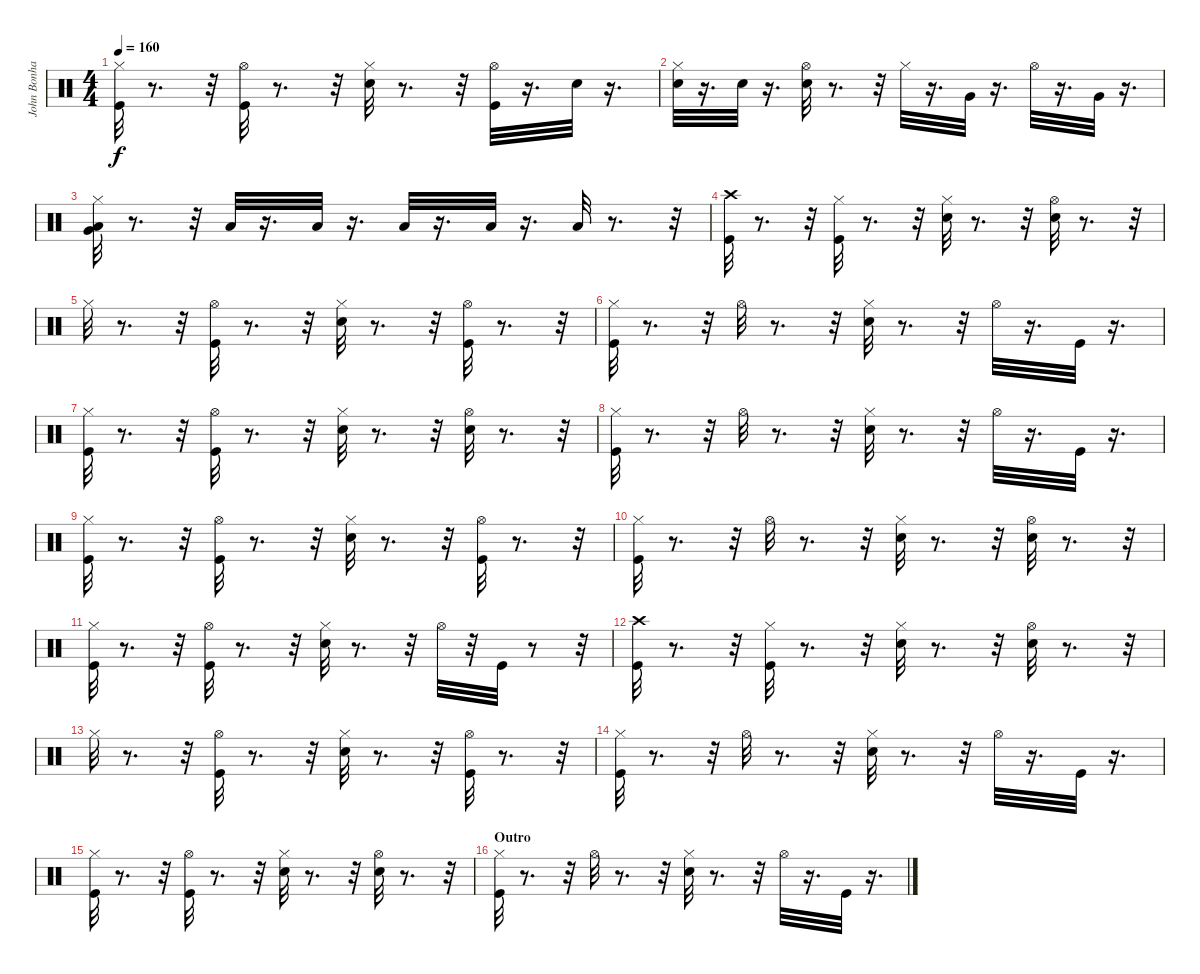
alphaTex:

\track ("John Bonham" "John Bonha") {instrument percussion}
\staff {score}
\articulation defaults
\ts (4 4)
\tempo 160
\clef neutral
\ks c
("Hi-Hat (closed)" "Kick (hit)").32{dy f} r.8{d} r.32 ("Hi-Hat (open)" "Kick (hit)").32 r.8{d} r.32 ("Hi-Hat (closed)" "Snare (hit) 2").32 r.8{d} r.32 ("Hi-Hat (open)" "Kick (hit)").32 r.16{d} "Snare (hit) 2".32 r.16{d} |
("Hi-Hat (closed)" "Snare (hit) 2").32 r.16{d} "Snare (hit) 2".32 r.16{d} ("Snare (hit) 2" "Hi-Hat (open)").32 r.8{d} r.32 "Hi-Hat (closed)".32 r.16{d} "Very Low Tom (hit)".32 r.16{d} "Hi-Hat (open)".32 r.16{d} "Very Low Tom (hit)".32 r.16{d} |
("Very Low Tom (hit)" "Hi-Hat (closed)" "Low Floor Tom (hit)").32 r.8{d} r.32 "Low Floor Tom (hit)".32 r.16{d} "Low Floor Tom (hit)".32 r.16{d} "Low Floor Tom (hit)".32 r.16{d} "Low Floor Tom (hit)".32 r.16{d} "Low Floor Tom (hit)".32 r.8{d} r.32 |
("Kick (hit)" "Crash high (hit)").32 r.8{d} r.32 ("Hi-Hat (closed)" "Kick (hit)").32 r.8{d} r.32 ("Hi-Hat (closed)" "Snare (hit) 2").32 r.8{d} r.32 ("Snare (hit) 2" "Hi-Hat (open)").32 r.8{d} r.32 |
"Hi-Hat (closed)".32 r.8{d} r.32 ("Kick (hit)" "Hi-Hat (open)").32 r.8{d} r.32 ("Snare (hit) 2" "Hi-Hat (closed)").32 r.8{d} r.32 ("Kick (hit)" "Hi-Hat (open)").32 r.8{d} r.32 |
("Kick (hit)" "Hi-Hat (closed)").32 r.8{d} r.32 "Hi-Hat (open)".32 r.8{d} r.32 ("Snare (hit) 2" "Hi-Hat (closed)").32 r.8{d} r.32 "Hi-Hat (open)".32 r.16{d} "Kick (hit)".32 r.16{d} |
("Hi-Hat (closed)" "Kick (hit)").32 r.8{d} r.32 ("Hi-Hat (open)" "Kick (hit)").32 r.8{d} r.32 ("Hi-Hat (closed)" "Snare (hit) 2").32 r.8{d} r.32 ("Hi-Hat (open)" "Snare (hit) 2").32 r.8{d} r.32 |
("Hi-Hat (closed)" "Kick (hit)").32 r.8{d} r.32 "Hi-Hat (open)".32 r.8{d} r.32 ("Snare (hit) 2" "Hi-Hat (closed)").32 r.8{d} r.32 "Hi-Hat (open)".32 r.16{d} "Kick (hit)".32 r.16{d} |
("Hi-Hat (closed)" "Kick (hit)").32 r.8{d} r.32 ("Hi-Hat (open)" "Kick (hit)").32 r.8{d} r.32 ("Hi-Hat (closed)" "Snare (hit) 2").32 r.8{d} r.32 ("Hi-Hat (open)" "Kick (hit)").32 r.8{d} r.32 |
("Hi-Hat (closed)" "Kick (hit)").32 r.8{d} r.32 "Hi-Hat (open)".32 r.8{d} r.32 ("Snare (hit) 2" "Hi-Hat (closed)").32 r.8{d} r.32 ("Snare (hit) 2" "Hi-Hat (open)").32 r.8{d} r.32 |
("Hi-Hat (closed)" "Kick (hit)").32 r.8{d} r.32 ("Hi-Hat (open)" "Kick (hit)").32 r.8{d} r.32 ("Hi-Hat (closed)" "Snare (hit) 2").32 r.8{d} r.32 "Hi-Hat (open)".32 r.32 "Kick (hit)".32 r.8 r.32 |
("Kick (hit)" "Crash high (hit)").32 r.8{d} r.32 ("Hi-Hat (closed)" "Kick (hit)").32 r.8{d} r.32 ("Hi-Hat (closed)" "Snare (hit) 2").32 r.8{d} r.32 ("Snare (hit) 2" "Hi-Hat (open)").32 r.8{d} r.32 |
"Hi-Hat (closed)".32 r.8{d} r.32 ("Kick (hit)" "Hi-Hat (open)").32 r.8{d} r.32 ("Snare (hit) 2" "Hi-Hat (closed)").32 r.8{d} r.32 ("Kick (hit)" "Hi-Hat (open)").32 r.8{d} r.32 |
("Kick (hit)" "Hi-Hat (closed)").32 r.8{d} r.32 "Hi-Hat (open)".32 r.8{d} r.32 ("Snare (hit) 2" "Hi-Hat (closed)").32 r.8{d} r.32 "Hi-Hat (open)".32 r.16{d} "Kick (hit)".32 r.16{d} |
("Hi-Hat (closed)" "Kick (hit)").32 r.8{d} r.32 ("Hi-Hat (open)" "Kick (hit)").32 r.8{d} r.32 ("Hi-Hat (closed)" "Snare (hit) 2").32 r.8{d} r.32 ("Hi-Hat (open)" "Snare (hit) 2").32 r.8{d} r.32 |
\section ("" "Outro")
("Hi-Hat (closed)" "Kick (hit)").32{volume 10} r.8{d} r.32 "Hi-Hat (open)".32{volume 10} r.8{d} r.32 ("Snare (hit) 2" "Hi-Hat (closed)").32{volume 10} r.8{d} r.32 "Hi-Hat (open)".32{volume 9} r.16{d} "Kick (hit)".32 r.16{d}
